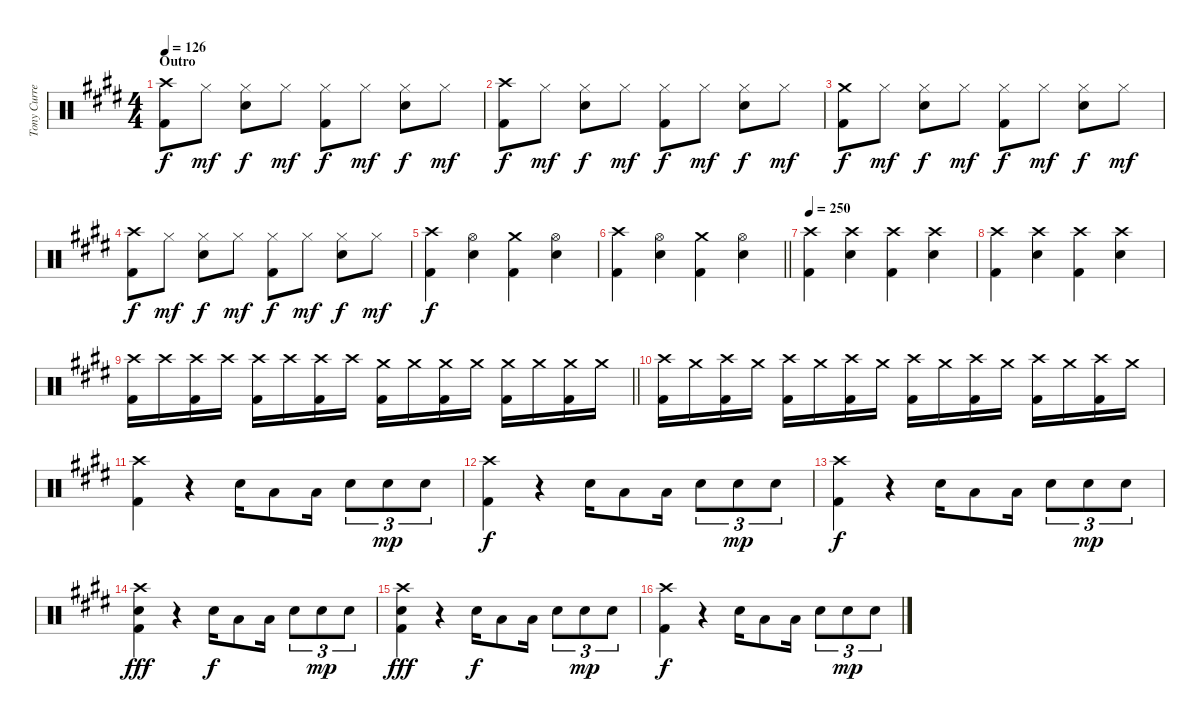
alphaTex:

\track ("Tony Currenti" "Tony Curre") {instrument percussion}
\staff {score}
\articulation defaults
\ts (4 4)
\section ("" "Outro")
\tempo 126
\clef neutral
\ks e
("Crash high (hit)" "Kick (hit) 2").8{dy f} "Hi-Hat (closed)".8{dy mf} ("Hi-Hat (closed)" "Snare (hit) 2").8{dy f} "Hi-Hat (closed)".8{dy mf} ("Hi-Hat (closed)" "Kick (hit) 2").8{dy f} "Hi-Hat (closed)".8{dy mf} ("Hi-Hat (closed)" "Snare (hit) 2").8{dy f} "Hi-Hat (closed)".8{dy mf} |
("Crash high (hit)" "Kick (hit) 2").8{dy f} "Hi-Hat (closed)".8{dy mf} ("Hi-Hat (closed)" "Snare (hit) 2").8{dy f} "Hi-Hat (closed)".8{dy mf} ("Hi-Hat (closed)" "Kick (hit) 2").8{dy f} "Hi-Hat (closed)".8{dy mf} ("Hi-Hat (closed)" "Snare (hit) 2").8{dy f} "Hi-Hat (closed)".8{dy mf} |
("Crash medium (hit)" "Kick (hit) 2").8{dy f} "Hi-Hat (closed)".8{dy mf} ("Hi-Hat (closed)" "Snare (hit) 2").8{dy f} "Hi-Hat (closed)".8{dy mf} ("Hi-Hat (closed)" "Kick (hit) 2").8{dy f} "Hi-Hat (closed)".8{dy mf} ("Hi-Hat (closed)" "Snare (hit) 2").8{dy f} "Hi-Hat (closed)".8{dy mf} |
("Crash high (hit)" "Kick (hit) 2").8{dy f} "Hi-Hat (closed)".8{dy mf} ("Hi-Hat (closed)" "Snare (hit) 2").8{dy f} "Hi-Hat (closed)".8{dy mf} ("Hi-Hat (closed)" "Kick (hit) 2").8{dy f} "Hi-Hat (closed)".8{dy mf} ("Hi-Hat (closed)" "Snare (hit) 2").8{dy f} "Hi-Hat (closed)".8{dy mf} |
("Crash high (hit)" "Kick (hit) 2").4{dy f} ("Hi-Hat (open)" "Snare (hit) 2").4 ("Crash medium (hit)" "Kick (hit) 2").4 ("Hi-Hat (open)" "Snare (hit) 2").4 |
\barLineRight lightlight
("Crash high (hit)" "Kick (hit) 2").4 ("Hi-Hat (open)" "Snare (hit) 2").4 ("Crash medium (hit)" "Kick (hit) 2").4 ("Hi-Hat (open)" "Snare (hit) 2").4 |
\tempo 250
("Crash high (hit)" "Kick (hit) 2").4 ("Crash high (hit)" "Snare (hit) 2").4 ("Crash high (hit)" "Kick (hit) 2").4 ("Crash high (hit)" "Snare (hit) 2").4 |
("Crash high (hit)" "Kick (hit) 2").4 ("Crash high (hit)" "Snare (hit) 2").4 ("Crash high (hit)" "Kick (hit) 2").4 ("Crash high (hit)" "Snare (hit) 2").4 |
\barLineRight lightlight
("Crash high (hit)" "Kick (hit) 2").16 "Crash high (hit)".16 ("Crash high (hit)" "Kick (hit) 2").16 "Crash high (hit)".16 ("Crash high (hit)" "Kick (hit) 2").16 "Crash high (hit)".16 ("Crash high (hit)" "Kick (hit) 2").16 "Crash high (hit)".16 ("Crash medium (hit)" "Kick (hit) 2").16 "Crash medium (hit)".16 ("Crash medium (hit)" "Kick (hit) 2").16 "Crash medium (hit)".16 ("Crash medium (hit)" "Kick (hit) 2").16 "Crash medium (hit)".16 ("Crash medium (hit)" "Kick (hit) 2").16 "Crash medium (hit)".16 |
("Crash high (hit)" "Kick (hit) 2").16 "Crash medium (hit)".16 ("Crash high (hit)" "Kick (hit) 2").16 "Crash medium (hit)".16 ("Crash high (hit)" "Kick (hit) 2").16 "Crash medium (hit)".16 ("Crash high (hit)" "Kick (hit) 2").16 "Crash medium (hit)".16 ("Crash high (hit)" "Kick (hit) 2").16 "Crash medium (hit)".16 ("Crash high (hit)" "Kick (hit) 2").16 "Crash medium (hit)".16 ("Crash high (hit)" "Kick (hit) 2").16 "Crash medium (hit)".16 ("Crash high (hit)" "Kick (hit) 2").16 "Crash medium (hit)".16 |
("Crash high (hit)" "Kick (hit) 2").4 r.4 "Snare (hit) 2".16 "Low Tom (hit)".8 "Low Tom (hit)".16 "Snare (hit) 2".8{tu (3 2)} "Snare (hit) 2".8{tu (3 2) dy mp} "Snare (hit) 2".8{tu (3 2)} |
("Crash high (hit)" "Kick (hit) 2").4{dy f} r.4 "Snare (hit) 2".16 "Low Tom (hit)".8 "Low Tom (hit)".16 "Snare (hit) 2".8{tu (3 2)} "Snare (hit) 2".8{tu (3 2) dy mp} "Snare (hit) 2".8{tu (3 2)} |
("Crash high (hit)" "Kick (hit) 2").4{dy f} r.4 "Snare (hit) 2".16 "Low Tom (hit)".8 "Low Tom (hit)".16 "Snare (hit) 2".8{tu (3 2)} "Snare (hit) 2".8{tu (3 2) dy mp} "Snare (hit) 2".8{tu (3 2)} |
("Crash high (hit)" "Snare (hit) 2" "Kick (hit) 2").4{dy fff} r.4 "Snare (hit) 2".16{dy f} "Low Tom (hit)".8 "Low Tom (hit)".16 "Snare (hit) 2".8{tu (3 2)} "Snare (hit) 2".8{tu (3 2) dy mp} "Snare (hit) 2".8{tu (3 2)} |
("Crash high (hit)" "Snare (hit) 2" "Kick (hit) 2").4{dy fff} r.4 "Snare (hit) 2".16{dy f} "Low Tom (hit)".8 "Low Tom (hit)".16 "Snare (hit) 2".8{tu (3 2)} "Snare (hit) 2".8{tu (3 2) dy mp} "Snare (hit) 2".8{tu (3 2)} |
("Crash high (hit)" "Kick (hit) 2").4{dy f} r.4 "Snare (hit) 2".16 "Low Tom (hit)".8 "Low Tom (hit)".16 "Snare (hit) 2".8{tu (3 2)} "Snare (hit) 2".8{tu (3 2) dy mp} "Snare (hit) 2".8{tu (3 2)}
